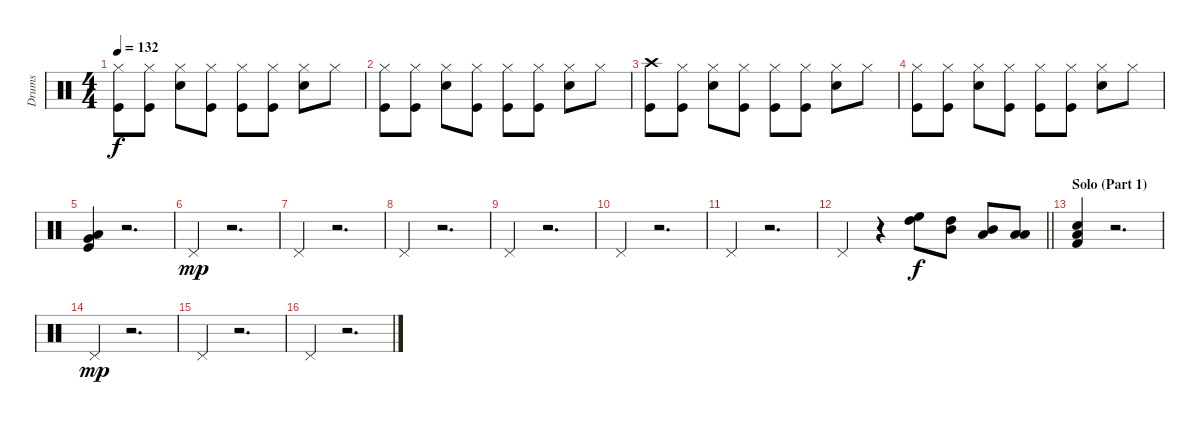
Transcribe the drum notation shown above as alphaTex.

\track ("Drums" "Drums") {instrument percussion}
\staff {score}
\articulation defaults
\ts (4 4)
\tempo 132
\clef neutral
\ks c
("Hi-Hat (closed)" "Kick (hit)").8{dy f} ("Hi-Hat (closed)" "Kick (hit)").8 ("Electric Snare (hit)" "Hi-Hat (closed)").8 ("Kick (hit)" "Hi-Hat (closed)").8 ("Hi-Hat (closed)" "Kick (hit)").8 ("Hi-Hat (closed)" "Kick (hit)").8 ("Hi-Hat (closed)" "Snare (hit) 2").8 "Hi-Hat (closed)".8 |
("Hi-Hat (closed)" "Kick (hit)").8 ("Hi-Hat (closed)" "Kick (hit)").8 ("Electric Snare (hit)" "Hi-Hat (closed)").8 ("Kick (hit)" "Hi-Hat (closed)").8 ("Hi-Hat (closed)" "Kick (hit)").8 ("Hi-Hat (closed)" "Kick (hit)").8 ("Hi-Hat (closed)" "Snare (hit) 2").8 "Hi-Hat (closed)".8 |
("Crash high (hit)" "Kick (hit)").8 ("Hi-Hat (closed)" "Kick (hit)").8 ("Electric Snare (hit)" "Hi-Hat (closed)").8 ("Kick (hit)" "Hi-Hat (closed)").8 ("Hi-Hat (closed)" "Kick (hit)").8 ("Hi-Hat (closed)" "Kick (hit)").8 ("Hi-Hat (closed)" "Snare (hit) 2").8 "Hi-Hat (closed)".8 |
("Hi-Hat (closed)" "Kick (hit)").8 ("Hi-Hat (closed)" "Kick (hit)").8 ("Electric Snare (hit)" "Hi-Hat (closed)").8 ("Kick (hit)" "Hi-Hat (closed)").8 ("Hi-Hat (closed)" "Kick (hit)").8 ("Hi-Hat (closed)" "Kick (hit)").8 ("Hi-Hat (closed)" "Snare (hit) 2").8 "Hi-Hat (closed)".8 |
("Very Low Tom (hit)" "Low Floor Tom (hit)" "Kick (hit)").4 r.2{d} |
"Pedal Hi-Hat (hit)".4{dy mp} r.2{d} |
"Pedal Hi-Hat (hit)".4 r.2{d} |
"Pedal Hi-Hat (hit)".4 r.2{d} |
"Pedal Hi-Hat (hit)".4 r.2{d} |
"Pedal Hi-Hat (hit)".4 r.2{d} |
"Pedal Hi-Hat (hit)".4 r.2{d} |
\barLineRight lightlight "Pedal Hi-Hat (hit)".4
r.4 ("High Floor Tom (hit)" "High Tom (hit)").8{dy f} ("High Tom (hit)" "Mid Tom (hit)").8 ("Low Tom (hit)" "Mid Tom (hit)").8 ("Low Tom (hit)" "Low Floor Tom (hit)").8 |
\section ("" "Solo (Part 1)")
("Low Floor Tom (hit)" "Kick (hit) 2" "Electric Snare (hit)").4 r.2{d} |
"Pedal Hi-Hat (hit)".4{dy mp} r.2{d} |
"Pedal Hi-Hat (hit)".4 r.2{d} |
"Pedal Hi-Hat (hit)".4 r.2{d}
